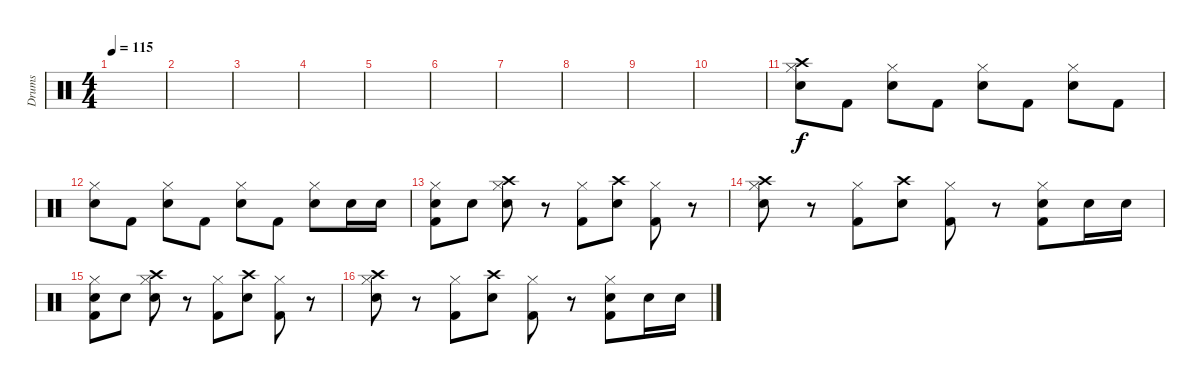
\track ("Drums" "Drums") {instrument percussion}
\staff {score}
\articulation defaults
\ts (4 4)
\tempo 115
\clef neutral
\ks c
|
|
|
|
|
|
|
|
|
|
("Hi-Hat (closed)" "Crash high (hit)" "Snare (hit) 2").8 "Kick (hit) 2".8 ("Hi-Hat (closed)" "Snare (hit) 2").8 "Kick (hit) 2".8 ("Hi-Hat (closed)" "Snare (hit) 2").8 "Kick (hit) 2".8 ("Hi-Hat (closed)" "Snare (hit) 2").8 "Kick (hit) 2".8 |
("Hi-Hat (closed)" "Snare (hit) 2").8 "Kick (hit) 2".8 ("Hi-Hat (closed)" "Snare (hit) 2").8 "Kick (hit) 2".8 ("Hi-Hat (closed)" "Snare (hit) 2").8 "Kick (hit) 2".8 ("Hi-Hat (closed)" "Snare (hit) 2").8 "Snare (hit) 2".16 "Snare (hit) 2".16 |
("Hi-Hat (closed)" "Kick (hit) 2" "Snare (hit) 2").8 "Snare (hit) 2".8 ("Hi-Hat (closed)" "Crash high (hit)" "Snare (hit) 2").8 r.8 ("Hi-Hat (closed)" "Kick (hit) 2").8 ("Crash high (hit)" "Snare (hit) 2").8 ("Hi-Hat (closed)" "Kick (hit) 2").8 r.8 |
("Hi-Hat (closed)" "Crash high (hit)" "Snare (hit) 2").8 r.8 ("Hi-Hat (closed)" "Kick (hit) 2").8 ("Crash high (hit)" "Snare (hit) 2").8 ("Hi-Hat (closed)" "Kick (hit) 2").8 r.8 ("Hi-Hat (closed)" "Kick (hit) 2" "Snare (hit) 2").8 "Snare (hit) 2".16 "Snare (hit) 2".16 |
("Hi-Hat (closed)" "Kick (hit) 2" "Snare (hit) 2").8 "Snare (hit) 2".8 ("Hi-Hat (closed)" "Crash high (hit)" "Snare (hit) 2").8 r.8 ("Hi-Hat (closed)" "Kick (hit) 2").8 ("Crash high (hit)" "Snare (hit) 2").8 ("Hi-Hat (closed)" "Kick (hit) 2").8 r.8 |
("Hi-Hat (closed)" "Crash high (hit)" "Snare (hit) 2").8 r.8 ("Hi-Hat (closed)" "Kick (hit) 2").8 ("Crash high (hit)" "Snare (hit) 2").8 ("Hi-Hat (closed)" "Kick (hit) 2").8 r.8 ("Hi-Hat (closed)" "Kick (hit) 2" "Snare (hit) 2").8 "Snare (hit) 2".16 "Snare (hit) 2".16
